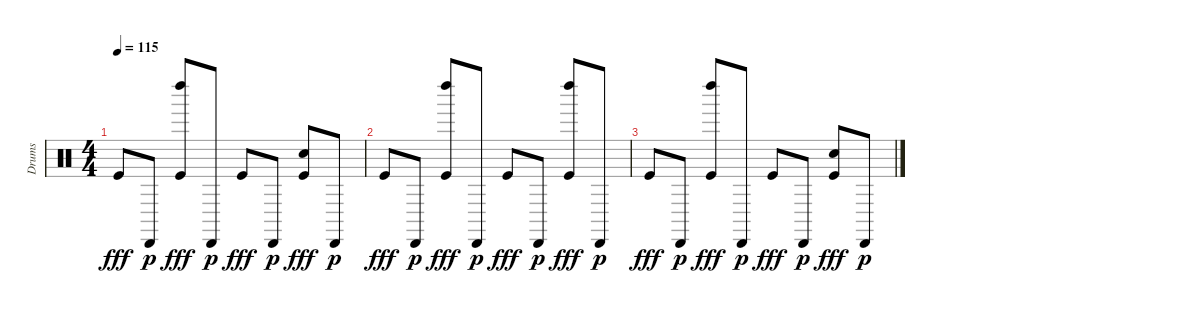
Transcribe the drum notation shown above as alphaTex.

\track ("Drums" "Drums") {instrument percussion}
\staff {score}
\articulation defaults
\ts (4 4)
\tempo 115
\clef neutral
\ks c "Kick (hit)".8{dy fff} "Cabasa (hit)".8{dy p}
("Left Maraca (hit)" "Kick (hit)").8{dy fff} "Cabasa (hit)".8{dy p} "Kick (hit)".8{dy fff} "Cabasa (hit)".8{dy p} ("Hand Clap (hit)" "Kick (hit)").8{dy fff} "Cabasa (hit)".8{dy p} |
"Kick (hit)".8{dy fff} "Cabasa (hit)".8{dy p} ("Left Maraca (hit)" "Kick (hit)").8{dy fff} "Cabasa (hit)".8{dy p} "Kick (hit)".8{dy fff} "Cabasa (hit)".8{dy p} ("Left Maraca (hit)" "Kick (hit)").8{dy fff} "Cabasa (hit)".8{dy p} |
"Kick (hit)".8{dy fff} "Cabasa (hit)".8{dy p} ("Left Maraca (hit)" "Kick (hit)").8{dy fff} "Cabasa (hit)".8{dy p} "Kick (hit)".8{dy fff} "Cabasa (hit)".8{dy p} ("Hand Clap (hit)" "Kick (hit)").8{dy fff} "Cabasa (hit)".8{dy p}
